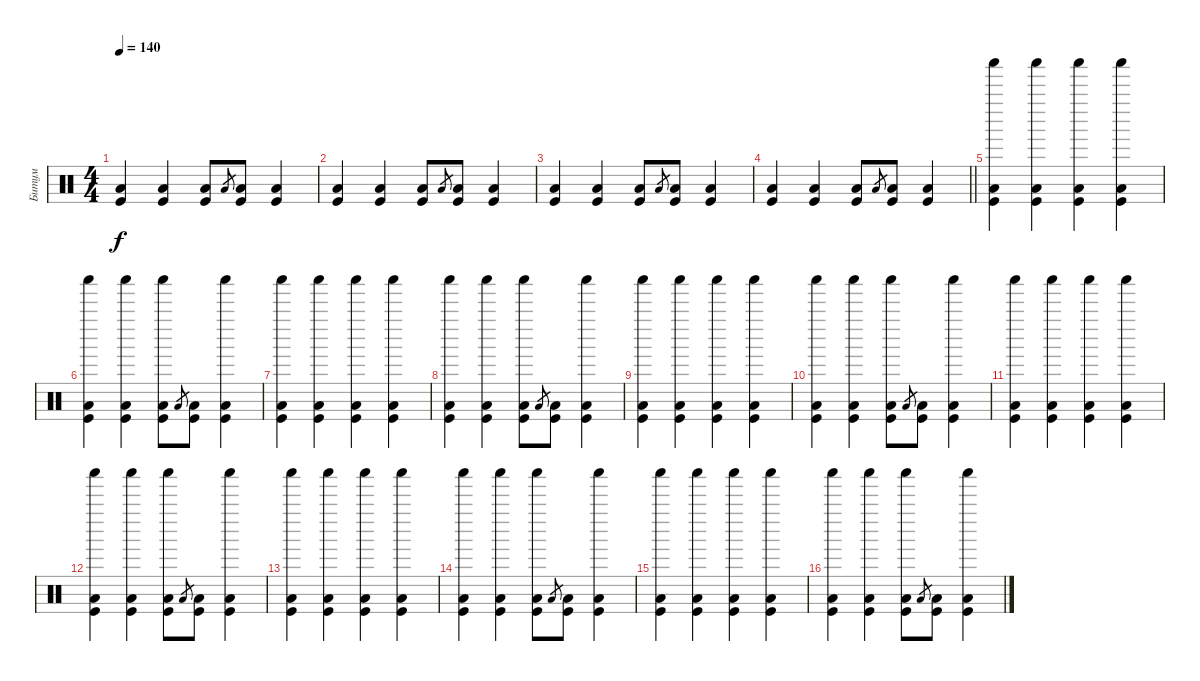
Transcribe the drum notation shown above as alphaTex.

\track ("Битум" "Битум") {instrument percussion}
\staff {score}
\articulation defaults
\ts (4 4)
\tempo 140
\clef neutral
\ks c
("Low Floor Tom (hit)" "Kick (hit)").4{dy f} ("Low Floor Tom (hit)" "Kick (hit)").4 ("Low Floor Tom (hit)" "Kick (hit)").8 "Low Floor Tom (hit)".8{gr} ("Low Floor Tom (hit)" "Kick (hit)").8 ("Low Floor Tom (hit)" "Kick (hit)").4 |
("Low Floor Tom (hit)" "Kick (hit)").4 ("Low Floor Tom (hit)" "Kick (hit)").4 ("Low Floor Tom (hit)" "Kick (hit)").8 "Low Floor Tom (hit)".8{gr} ("Low Floor Tom (hit)" "Kick (hit)").8 ("Low Floor Tom (hit)" "Kick (hit)").4 |
("Low Floor Tom (hit)" "Kick (hit)").4 ("Low Floor Tom (hit)" "Kick (hit)").4 ("Low Floor Tom (hit)" "Kick (hit)").8 "Low Floor Tom (hit)".8{gr} ("Low Floor Tom (hit)" "Kick (hit)").8 ("Low Floor Tom (hit)" "Kick (hit)").4 |
\barLineRight lightlight
("Low Floor Tom (hit)" "Kick (hit)").4 ("Low Floor Tom (hit)" "Kick (hit)").4 ("Low Floor Tom (hit)" "Kick (hit)").8 "Low Floor Tom (hit)".8{gr} ("Low Floor Tom (hit)" "Kick (hit)").8 ("Low Floor Tom (hit)" "Kick (hit)").4 |
("Shaker (hit)" "Low Floor Tom (hit)" "Kick (hit)").4 ("Shaker (hit)" "Low Floor Tom (hit)" "Kick (hit)").4 ("Shaker (hit)" "Low Floor Tom (hit)" "Kick (hit)").4 ("Shaker (hit)" "Low Floor Tom (hit)" "Kick (hit)").4 |
("Shaker (hit)" "Low Floor Tom (hit)" "Kick (hit)").4 ("Shaker (hit)" "Low Floor Tom (hit)" "Kick (hit)").4 ("Shaker (hit)" "Low Floor Tom (hit)" "Kick (hit)").8 "Low Floor Tom (hit)".8{gr} ("Low Floor Tom (hit)" "Kick (hit)").8 ("Shaker (hit)" "Low Floor Tom (hit)" "Kick (hit)").4 |
("Shaker (hit)" "Low Floor Tom (hit)" "Kick (hit)").4 ("Shaker (hit)" "Low Floor Tom (hit)" "Kick (hit)").4 ("Shaker (hit)" "Low Floor Tom (hit)" "Kick (hit)").4 ("Shaker (hit)" "Low Floor Tom (hit)" "Kick (hit)").4 |
("Shaker (hit)" "Low Floor Tom (hit)" "Kick (hit)").4 ("Shaker (hit)" "Low Floor Tom (hit)" "Kick (hit)").4 ("Shaker (hit)" "Low Floor Tom (hit)" "Kick (hit)").8 "Low Floor Tom (hit)".8{gr} ("Low Floor Tom (hit)" "Kick (hit)").8 ("Shaker (hit)" "Low Floor Tom (hit)" "Kick (hit)").4 |
("Shaker (hit)" "Low Floor Tom (hit)" "Kick (hit)").4 ("Shaker (hit)" "Low Floor Tom (hit)" "Kick (hit)").4 ("Shaker (hit)" "Low Floor Tom (hit)" "Kick (hit)").4 ("Shaker (hit)" "Low Floor Tom (hit)" "Kick (hit)").4 |
("Shaker (hit)" "Low Floor Tom (hit)" "Kick (hit)").4 ("Shaker (hit)" "Low Floor Tom (hit)" "Kick (hit)").4 ("Shaker (hit)" "Low Floor Tom (hit)" "Kick (hit)").8 "Low Floor Tom (hit)".8{gr} ("Low Floor Tom (hit)" "Kick (hit)").8 ("Shaker (hit)" "Low Floor Tom (hit)" "Kick (hit)").4 |
("Shaker (hit)" "Low Floor Tom (hit)" "Kick (hit)").4 ("Shaker (hit)" "Low Floor Tom (hit)" "Kick (hit)").4 ("Shaker (hit)" "Low Floor Tom (hit)" "Kick (hit)").4 ("Shaker (hit)" "Low Floor Tom (hit)" "Kick (hit)").4 |
("Shaker (hit)" "Low Floor Tom (hit)" "Kick (hit)").4 ("Shaker (hit)" "Low Floor Tom (hit)" "Kick (hit)").4 ("Shaker (hit)" "Low Floor Tom (hit)" "Kick (hit)").8 "Low Floor Tom (hit)".8{gr} ("Low Floor Tom (hit)" "Kick (hit)").8 ("Shaker (hit)" "Low Floor Tom (hit)" "Kick (hit)").4 |
("Shaker (hit)" "Low Floor Tom (hit)" "Kick (hit)").4 ("Shaker (hit)" "Low Floor Tom (hit)" "Kick (hit)").4 ("Shaker (hit)" "Low Floor Tom (hit)" "Kick (hit)").4 ("Shaker (hit)" "Low Floor Tom (hit)" "Kick (hit)").4 |
("Shaker (hit)" "Low Floor Tom (hit)" "Kick (hit)").4 ("Shaker (hit)" "Low Floor Tom (hit)" "Kick (hit)").4 ("Shaker (hit)" "Low Floor Tom (hit)" "Kick (hit)").8 "Low Floor Tom (hit)".8{gr} ("Low Floor Tom (hit)" "Kick (hit)").8 ("Shaker (hit)" "Low Floor Tom (hit)" "Kick (hit)").4 |
("Shaker (hit)" "Low Floor Tom (hit)" "Kick (hit)").4 ("Shaker (hit)" "Low Floor Tom (hit)" "Kick (hit)").4 ("Shaker (hit)" "Low Floor Tom (hit)" "Kick (hit)").4 ("Shaker (hit)" "Low Floor Tom (hit)" "Kick (hit)").4 |
("Shaker (hit)" "Low Floor Tom (hit)" "Kick (hit)").4 ("Shaker (hit)" "Low Floor Tom (hit)" "Kick (hit)").4 ("Shaker (hit)" "Low Floor Tom (hit)" "Kick (hit)").8 "Low Floor Tom (hit)".8{gr} ("Low Floor Tom (hit)" "Kick (hit)").8 ("Shaker (hit)" "Low Floor Tom (hit)" "Kick (hit)").4
